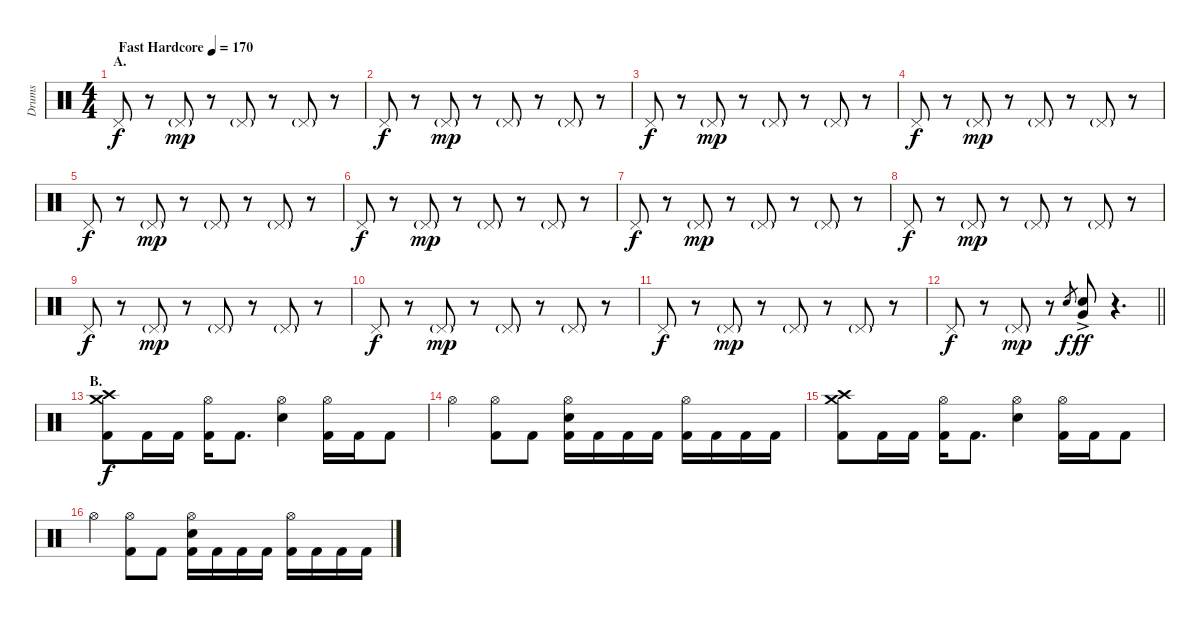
\track ("Drums" "Drums") {instrument percussion}
\staff {score}
\articulation defaults
\ts (4 4)
\section ("" "A.")
\tempo (170 "Fast Hardcore")
\clef neutral
\ks c "Pedal Hi-Hat (hit)".8{dy f}
r.8 "Pedal Hi-Hat (hit)"{g}.8{dy mp} r.8 "Pedal Hi-Hat (hit)"{g}.8 r.8 "Pedal Hi-Hat (hit)"{g}.8 r.8 |
"Pedal Hi-Hat (hit)".8{dy f} r.8 "Pedal Hi-Hat (hit)"{g}.8{dy mp} r.8 "Pedal Hi-Hat (hit)"{g}.8 r.8 "Pedal Hi-Hat (hit)"{g}.8 r.8 |
"Pedal Hi-Hat (hit)".8{dy f} r.8 "Pedal Hi-Hat (hit)"{g}.8{dy mp} r.8 "Pedal Hi-Hat (hit)"{g}.8 r.8 "Pedal Hi-Hat (hit)"{g}.8 r.8 |
"Pedal Hi-Hat (hit)".8{dy f} r.8 "Pedal Hi-Hat (hit)"{g}.8{dy mp} r.8 "Pedal Hi-Hat (hit)"{g}.8 r.8 "Pedal Hi-Hat (hit)"{g}.8 r.8 |
"Pedal Hi-Hat (hit)".8{dy f} r.8 "Pedal Hi-Hat (hit)"{g}.8{dy mp} r.8 "Pedal Hi-Hat (hit)"{g}.8 r.8 "Pedal Hi-Hat (hit)"{g}.8 r.8 |
"Pedal Hi-Hat (hit)".8{dy f} r.8 "Pedal Hi-Hat (hit)"{g}.8{dy mp} r.8 "Pedal Hi-Hat (hit)"{g}.8 r.8 "Pedal Hi-Hat (hit)"{g}.8 r.8 |
"Pedal Hi-Hat (hit)".8{dy f} r.8 "Pedal Hi-Hat (hit)"{g}.8{dy mp} r.8 "Pedal Hi-Hat (hit)"{g}.8 r.8 "Pedal Hi-Hat (hit)"{g}.8 r.8 |
"Pedal Hi-Hat (hit)".8{dy f} r.8 "Pedal Hi-Hat (hit)"{g}.8{dy mp} r.8 "Pedal Hi-Hat (hit)"{g}.8 r.8 "Pedal Hi-Hat (hit)"{g}.8 r.8 |
"Pedal Hi-Hat (hit)".8{dy f} r.8 "Pedal Hi-Hat (hit)"{g}.8{dy mp} r.8 "Pedal Hi-Hat (hit)"{g}.8 r.8 "Pedal Hi-Hat (hit)"{g}.8 r.8 |
"Pedal Hi-Hat (hit)".8{dy f} r.8 "Pedal Hi-Hat (hit)"{g}.8{dy mp} r.8 "Pedal Hi-Hat (hit)"{g}.8 r.8 "Pedal Hi-Hat (hit)"{g}.8 r.8 |
"Pedal Hi-Hat (hit)".8{dy f} r.8 "Pedal Hi-Hat (hit)"{g}.8{dy mp} r.8 "Pedal Hi-Hat (hit)"{g}.8 r.8 "Pedal Hi-Hat (hit)"{g}.8 r.8 |
\barLineRight lightlight "Pedal Hi-Hat (hit)".8{dy f}
r.8 "Pedal Hi-Hat (hit)"{g}.8{dy mp} r.8 "Electric Snare (hit)".8{gr dy f} ("Electric Snare (hit)"{ac} "Very Low Tom (hit)").8{dy ff} r.4{d} |
\section ("" "B.")
("Crash medium (hit)" "Crash high (hit)" "Kick (hit) 2").8{dy f} "Kick (hit) 2".16 "Kick (hit) 2".16 ("Hi-Hat (open)" "Kick (hit) 2").16 "Kick (hit) 2".8{d} ("Hi-Hat (open)" "Electric Snare (hit)").4 ("Hi-Hat (open)" "Kick (hit) 2").16 "Kick (hit) 2".16 "Kick (hit) 2".8 |
"Hi-Hat (open)".4 ("Hi-Hat (open)" "Kick (hit) 2").8 "Kick (hit) 2".8 ("Hi-Hat (open)" "Electric Snare (hit)" "Kick (hit) 2").16 "Kick (hit) 2".16 "Kick (hit) 2".16 "Kick (hit) 2".16 ("Hi-Hat (open)" "Kick (hit) 2").16 "Kick (hit) 2".16 "Kick (hit) 2".16 "Kick (hit) 2".16 |
("Crash medium (hit)" "Crash high (hit)" "Kick (hit) 2").8 "Kick (hit) 2".16 "Kick (hit) 2".16 ("Hi-Hat (open)" "Kick (hit) 2").16 "Kick (hit) 2".8{d} ("Hi-Hat (open)" "Electric Snare (hit)").4 ("Hi-Hat (open)" "Kick (hit) 2").16 "Kick (hit) 2".16 "Kick (hit) 2".8 |
"Hi-Hat (open)".4 ("Hi-Hat (open)" "Kick (hit) 2").8 "Kick (hit) 2".8 ("Hi-Hat (open)" "Electric Snare (hit)" "Kick (hit) 2").16 "Kick (hit) 2".16 "Kick (hit) 2".16 "Kick (hit) 2".16 ("Hi-Hat (open)" "Kick (hit) 2").16 "Kick (hit) 2".16 "Kick (hit) 2".16 "Kick (hit) 2".16
